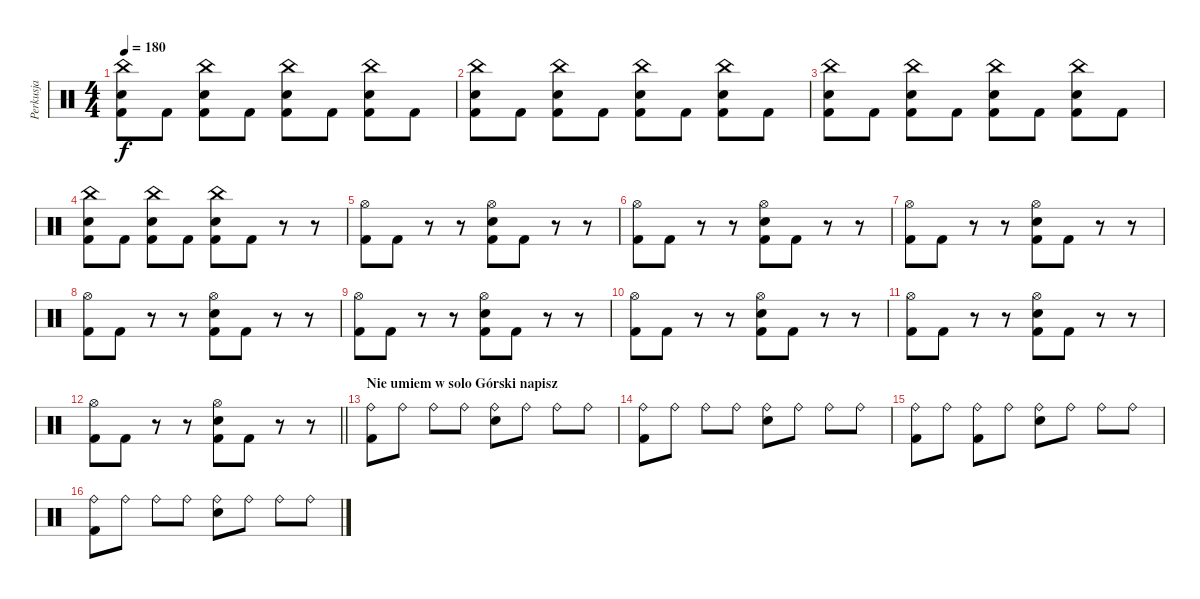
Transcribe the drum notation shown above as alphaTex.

\track ("Perkusja" "Perkusja") {instrument percussion}
\staff {score}
\articulation defaults
\ts (4 4)
\tempo 180
\clef neutral
\ks c
("China (hit)" "Snare (hit) 2" "Kick (hit) 2").8{dy f} "Kick (hit) 2".8 ("China (hit)" "Snare (hit) 2" "Kick (hit) 2").8 "Kick (hit) 2".8 ("China (hit)" "Snare (hit) 2" "Kick (hit) 2").8 "Kick (hit) 2".8 ("China (hit)" "Snare (hit) 2" "Kick (hit) 2").8 "Kick (hit) 2".8 |
("China (hit)" "Snare (hit) 2" "Kick (hit) 2").8 "Kick (hit) 2".8 ("China (hit)" "Snare (hit) 2" "Kick (hit) 2").8 "Kick (hit) 2".8 ("China (hit)" "Snare (hit) 2" "Kick (hit) 2").8 "Kick (hit) 2".8 ("China (hit)" "Snare (hit) 2" "Kick (hit) 2").8 "Kick (hit) 2".8 |
("China (hit)" "Snare (hit) 2" "Kick (hit) 2").8 "Kick (hit) 2".8 ("China (hit)" "Snare (hit) 2" "Kick (hit) 2").8 "Kick (hit) 2".8 ("China (hit)" "Snare (hit) 2" "Kick (hit) 2").8 "Kick (hit) 2".8 ("China (hit)" "Snare (hit) 2" "Kick (hit) 2").8 "Kick (hit) 2".8 |
("China (hit)" "Snare (hit) 2" "Kick (hit) 2").8 "Kick (hit) 2".8 ("China (hit)" "Snare (hit) 2" "Kick (hit) 2").8 "Kick (hit) 2".8 ("China (hit)" "Snare (hit) 2" "Kick (hit) 2").8 "Kick (hit) 2".8 r.8 r.8 |
("Hi-Hat (open)" "Kick (hit) 2").8 "Kick (hit) 2".8 r.8 r.8 ("Hi-Hat (open)" "Snare (hit) 2" "Kick (hit) 2").8 "Kick (hit) 2".8 r.8 r.8 |
("Hi-Hat (open)" "Kick (hit) 2").8 "Kick (hit) 2".8 r.8 r.8 ("Hi-Hat (open)" "Snare (hit) 2" "Kick (hit) 2").8 "Kick (hit) 2".8 r.8 r.8 |
("Hi-Hat (open)" "Kick (hit) 2").8 "Kick (hit) 2".8 r.8 r.8 ("Hi-Hat (open)" "Snare (hit) 2" "Kick (hit) 2").8 "Kick (hit) 2".8 r.8 r.8 |
("Hi-Hat (open)" "Kick (hit) 2").8 "Kick (hit) 2".8 r.8 r.8 ("Hi-Hat (open)" "Snare (hit) 2" "Kick (hit) 2").8 "Kick (hit) 2".8 r.8 r.8 |
("Hi-Hat (open)" "Kick (hit) 2").8 "Kick (hit) 2".8 r.8 r.8 ("Hi-Hat (open)" "Snare (hit) 2" "Kick (hit) 2").8 "Kick (hit) 2".8 r.8 r.8 |
("Hi-Hat (open)" "Kick (hit) 2").8 "Kick (hit) 2".8 r.8 r.8 ("Hi-Hat (open)" "Snare (hit) 2" "Kick (hit) 2").8 "Kick (hit) 2".8 r.8 r.8 |
("Hi-Hat (open)" "Kick (hit) 2").8 "Kick (hit) 2".8 r.8 r.8 ("Hi-Hat (open)" "Snare (hit) 2" "Kick (hit) 2").8 "Kick (hit) 2".8 r.8 r.8 |
\barLineRight lightlight
("Hi-Hat (open)" "Kick (hit) 2").8 "Kick (hit) 2".8 r.8 r.8 ("Hi-Hat (open)" "Snare (hit) 2" "Kick (hit) 2").8 "Kick (hit) 2".8 r.8 r.8 |
\section ("" "Nie umiem w solo Górski napisz")
("Ride (bell)" "Kick (hit) 2").8 "Ride (bell)".8 "Ride (bell)".8 "Ride (bell)".8 ("Ride (bell)" "Snare (hit) 2").8 "Ride (bell)".8 "Ride (bell)".8 "Ride (bell)".8 |
("Ride (bell)" "Kick (hit) 2").8 "Ride (bell)".8 "Ride (bell)".8 "Ride (bell)".8 ("Ride (bell)" "Snare (hit) 2").8 "Ride (bell)".8 "Ride (bell)".8 "Ride (bell)".8 |
("Ride (bell)" "Kick (hit) 2").8 "Ride (bell)".8 ("Ride (bell)" "Kick (hit) 2").8 "Ride (bell)".8 ("Ride (bell)" "Snare (hit) 2").8 "Ride (bell)".8 "Ride (bell)".8 "Ride (bell)".8 |
("Ride (bell)" "Kick (hit) 2").8 "Ride (bell)".8 "Ride (bell)".8 "Ride (bell)".8 ("Ride (bell)" "Snare (hit) 2").8 "Ride (bell)".8 "Ride (bell)".8 "Ride (bell)".8
